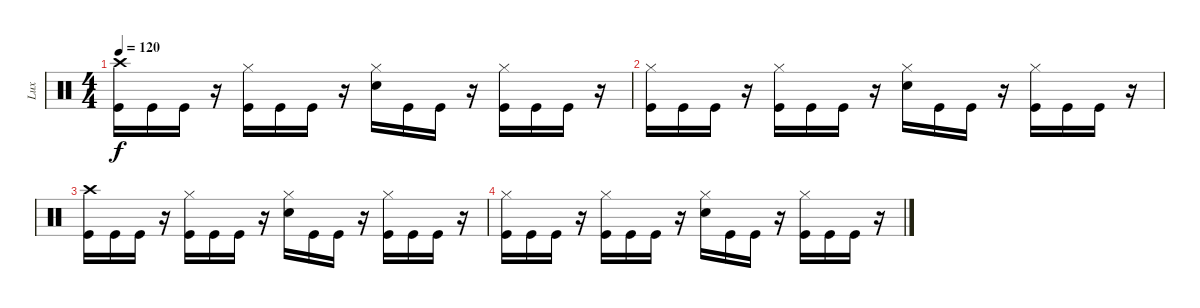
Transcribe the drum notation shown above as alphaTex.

\track ("Lux" "Lux") {solo instrument percussion}
\staff {score}
\articulation defaults
\ts (4 4)
\tempo 120
\clef neutral
\ks c
("Crash high (hit)" "Kick (hit)").16{dy f} "Kick (hit)".16 "Kick (hit)".16 r.16 ("Hi-Hat (closed)" "Kick (hit)").16 "Kick (hit)".16 "Kick (hit)".16 r.16 ("Hi-Hat (closed)" "Snare (hit) 2").16 "Kick (hit)".16 "Kick (hit)".16 r.16 ("Hi-Hat (closed)" "Kick (hit)").16 "Kick (hit)".16 "Kick (hit)".16 r.16 |
("Hi-Hat (closed)" "Kick (hit)").16 "Kick (hit)".16 "Kick (hit)".16 r.16 ("Hi-Hat (closed)" "Kick (hit)").16 "Kick (hit)".16 "Kick (hit)".16 r.16 ("Hi-Hat (closed)" "Snare (hit) 2").16 "Kick (hit)".16 "Kick (hit)".16 r.16 ("Hi-Hat (closed)" "Kick (hit)").16 "Kick (hit)".16 "Kick (hit)".16 r.16 |
("Crash high (hit)" "Kick (hit)").16 "Kick (hit)".16 "Kick (hit)".16 r.16 ("Hi-Hat (closed)" "Kick (hit)").16 "Kick (hit)".16 "Kick (hit)".16 r.16 ("Hi-Hat (closed)" "Snare (hit) 2").16 "Kick (hit)".16 "Kick (hit)".16 r.16 ("Hi-Hat (closed)" "Kick (hit)").16 "Kick (hit)".16 "Kick (hit)".16 r.16 |
("Hi-Hat (closed)" "Kick (hit)").16 "Kick (hit)".16 "Kick (hit)".16 r.16 ("Hi-Hat (closed)" "Kick (hit)").16 "Kick (hit)".16 "Kick (hit)".16 r.16 ("Hi-Hat (closed)" "Snare (hit) 2").16 "Kick (hit)".16 "Kick (hit)".16 r.16 ("Hi-Hat (closed)" "Kick (hit)").16 "Kick (hit)".16 "Kick (hit)".16 r.16
